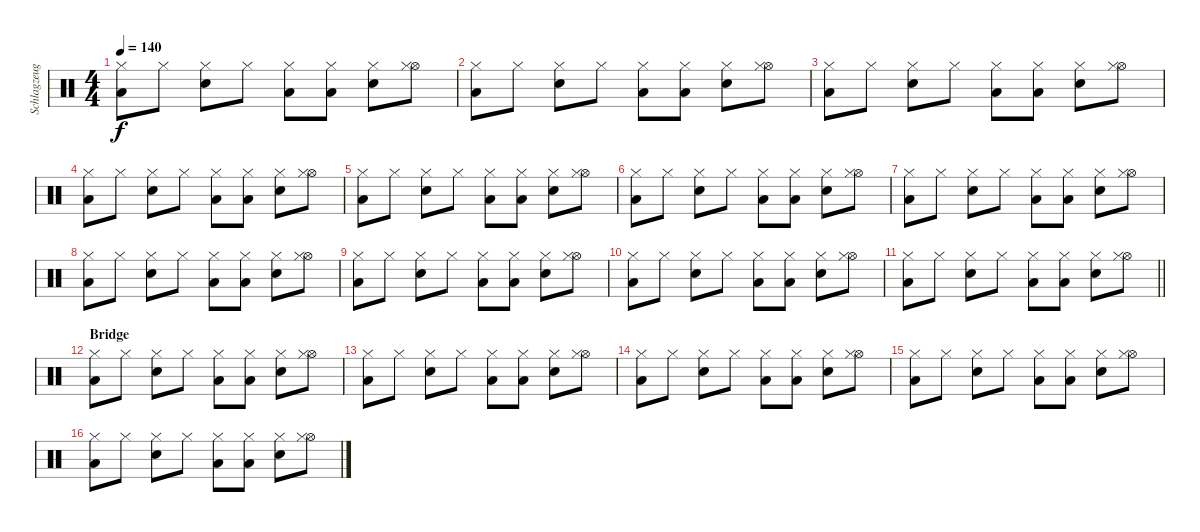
\track ("Schlagzeug 2nd" "Schlagzeug") {instrument percussion}
\staff {score}
\articulation defaults
\ts (4 4)
\tempo 140
\clef neutral
\ks c
("Hi-Hat (closed)" "Low Tom (hit)").8{dy f} "Hi-Hat (closed)".8 ("Hi-Hat (closed)" "Electric Snare (hit)").8 "Hi-Hat (closed)".8 ("Hi-Hat (closed)" "Low Tom (hit)").8 ("Hi-Hat (closed)" "Low Tom (hit)").8 ("Hi-Hat (closed)" "Electric Snare (hit)").8 ("Hi-Hat (open)" "Hi-Hat (closed)").8 |
("Hi-Hat (closed)" "Low Tom (hit)").8 "Hi-Hat (closed)".8 ("Hi-Hat (closed)" "Electric Snare (hit)").8 "Hi-Hat (closed)".8 ("Hi-Hat (closed)" "Low Tom (hit)").8 ("Hi-Hat (closed)" "Low Tom (hit)").8 ("Hi-Hat (closed)" "Electric Snare (hit)").8 ("Hi-Hat (open)" "Hi-Hat (closed)").8 |
("Hi-Hat (closed)" "Low Tom (hit)").8 "Hi-Hat (closed)".8 ("Hi-Hat (closed)" "Electric Snare (hit)").8 "Hi-Hat (closed)".8 ("Hi-Hat (closed)" "Low Tom (hit)").8 ("Hi-Hat (closed)" "Low Tom (hit)").8 ("Hi-Hat (closed)" "Electric Snare (hit)").8 ("Hi-Hat (open)" "Hi-Hat (closed)").8 |
("Hi-Hat (closed)" "Low Tom (hit)").8 "Hi-Hat (closed)".8 ("Hi-Hat (closed)" "Electric Snare (hit)").8 "Hi-Hat (closed)".8 ("Hi-Hat (closed)" "Low Tom (hit)").8 ("Hi-Hat (closed)" "Low Tom (hit)").8 ("Hi-Hat (closed)" "Electric Snare (hit)").8 ("Hi-Hat (open)" "Hi-Hat (closed)").8 |
("Hi-Hat (closed)" "Low Tom (hit)").8 "Hi-Hat (closed)".8 ("Hi-Hat (closed)" "Electric Snare (hit)").8 "Hi-Hat (closed)".8 ("Hi-Hat (closed)" "Low Tom (hit)").8 ("Hi-Hat (closed)" "Low Tom (hit)").8 ("Hi-Hat (closed)" "Electric Snare (hit)").8 ("Hi-Hat (open)" "Hi-Hat (closed)").8 |
("Hi-Hat (closed)" "Low Tom (hit)").8 "Hi-Hat (closed)".8 ("Hi-Hat (closed)" "Electric Snare (hit)").8 "Hi-Hat (closed)".8 ("Hi-Hat (closed)" "Low Tom (hit)").8 ("Hi-Hat (closed)" "Low Tom (hit)").8 ("Hi-Hat (closed)" "Electric Snare (hit)").8 ("Hi-Hat (open)" "Hi-Hat (closed)").8 |
("Hi-Hat (closed)" "Low Tom (hit)").8 "Hi-Hat (closed)".8 ("Hi-Hat (closed)" "Electric Snare (hit)").8 "Hi-Hat (closed)".8 ("Hi-Hat (closed)" "Low Tom (hit)").8 ("Hi-Hat (closed)" "Low Tom (hit)").8 ("Hi-Hat (closed)" "Electric Snare (hit)").8 ("Hi-Hat (open)" "Hi-Hat (closed)").8 |
("Hi-Hat (closed)" "Low Tom (hit)").8 "Hi-Hat (closed)".8 ("Hi-Hat (closed)" "Electric Snare (hit)").8 "Hi-Hat (closed)".8 ("Hi-Hat (closed)" "Low Tom (hit)").8 ("Hi-Hat (closed)" "Low Tom (hit)").8 ("Hi-Hat (closed)" "Electric Snare (hit)").8 ("Hi-Hat (open)" "Hi-Hat (closed)").8 |
("Hi-Hat (closed)" "Low Tom (hit)").8 "Hi-Hat (closed)".8 ("Hi-Hat (closed)" "Electric Snare (hit)").8 "Hi-Hat (closed)".8 ("Hi-Hat (closed)" "Low Tom (hit)").8 ("Hi-Hat (closed)" "Low Tom (hit)").8 ("Hi-Hat (closed)" "Electric Snare (hit)").8 ("Hi-Hat (open)" "Hi-Hat (closed)").8 |
("Hi-Hat (closed)" "Low Tom (hit)").8 "Hi-Hat (closed)".8 ("Hi-Hat (closed)" "Electric Snare (hit)").8 "Hi-Hat (closed)".8 ("Hi-Hat (closed)" "Low Tom (hit)").8 ("Hi-Hat (closed)" "Low Tom (hit)").8 ("Hi-Hat (closed)" "Electric Snare (hit)").8 ("Hi-Hat (open)" "Hi-Hat (closed)").8 |
\barLineRight lightlight
("Hi-Hat (closed)" "Low Tom (hit)").8 "Hi-Hat (closed)".8 ("Hi-Hat (closed)" "Electric Snare (hit)").8 "Hi-Hat (closed)".8 ("Hi-Hat (closed)" "Low Tom (hit)").8 ("Hi-Hat (closed)" "Low Tom (hit)").8 ("Hi-Hat (closed)" "Electric Snare (hit)").8 ("Hi-Hat (open)" "Hi-Hat (closed)").8 |
\section ("" "Bridge")
("Hi-Hat (closed)" "Low Tom (hit)").8 "Hi-Hat (closed)".8 ("Hi-Hat (closed)" "Electric Snare (hit)").8 "Hi-Hat (closed)".8 ("Hi-Hat (closed)" "Low Tom (hit)").8 ("Hi-Hat (closed)" "Low Tom (hit)").8 ("Hi-Hat (closed)" "Electric Snare (hit)").8 ("Hi-Hat (open)" "Hi-Hat (closed)").8 |
("Hi-Hat (closed)" "Low Tom (hit)").8 "Hi-Hat (closed)".8 ("Hi-Hat (closed)" "Electric Snare (hit)").8 "Hi-Hat (closed)".8 ("Hi-Hat (closed)" "Low Tom (hit)").8 ("Hi-Hat (closed)" "Low Tom (hit)").8 ("Hi-Hat (closed)" "Electric Snare (hit)").8 ("Hi-Hat (open)" "Hi-Hat (closed)").8 |
("Hi-Hat (closed)" "Low Tom (hit)").8 "Hi-Hat (closed)".8 ("Hi-Hat (closed)" "Electric Snare (hit)").8 "Hi-Hat (closed)".8 ("Hi-Hat (closed)" "Low Tom (hit)").8 ("Hi-Hat (closed)" "Low Tom (hit)").8 ("Hi-Hat (closed)" "Electric Snare (hit)").8 ("Hi-Hat (open)" "Hi-Hat (closed)").8 |
("Hi-Hat (closed)" "Low Tom (hit)").8 "Hi-Hat (closed)".8 ("Hi-Hat (closed)" "Electric Snare (hit)").8 "Hi-Hat (closed)".8 ("Hi-Hat (closed)" "Low Tom (hit)").8 ("Hi-Hat (closed)" "Low Tom (hit)").8 ("Hi-Hat (closed)" "Electric Snare (hit)").8 ("Hi-Hat (open)" "Hi-Hat (closed)").8 |
("Hi-Hat (closed)" "Low Tom (hit)").8 "Hi-Hat (closed)".8 ("Hi-Hat (closed)" "Electric Snare (hit)").8 "Hi-Hat (closed)".8 ("Hi-Hat (closed)" "Low Tom (hit)").8 ("Hi-Hat (closed)" "Low Tom (hit)").8 ("Hi-Hat (closed)" "Electric Snare (hit)").8 ("Hi-Hat (open)" "Hi-Hat (closed)").8
